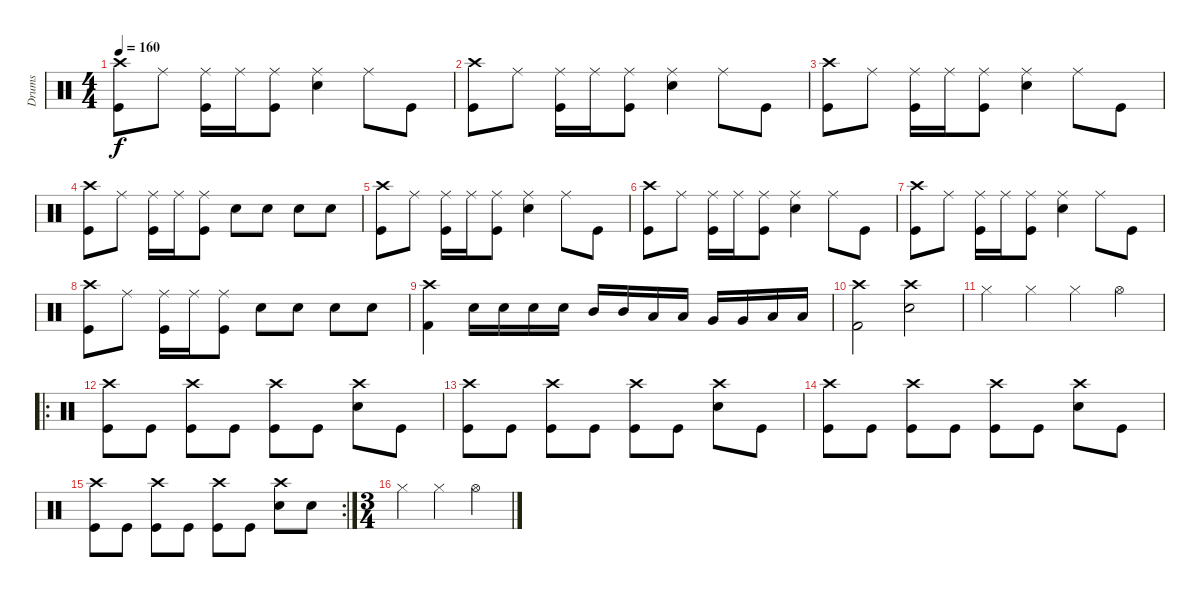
\track ("Drums" "Drums") {instrument percussion}
\staff {score}
\articulation defaults
\ts (4 4)
\tempo 160
\clef neutral
\ks c
("Crash high (hit)" "Kick (hit)").8{dy f} "Ride (middle)".8 ("Ride (middle)" "Kick (hit)").16 "Ride (middle)".16 ("Ride (middle)" "Kick (hit)").8 ("Ride (middle)" "Snare (hit) 2").4 "Ride (middle)".8 "Kick (hit)".8 |
("Crash high (hit)" "Kick (hit)").8 "Ride (middle)".8 ("Ride (middle)" "Kick (hit)").16 "Ride (middle)".16 ("Ride (middle)" "Kick (hit)").8 ("Ride (middle)" "Snare (hit) 2").4 "Ride (middle)".8 "Kick (hit)".8 |
("Crash high (hit)" "Kick (hit)").8 "Ride (middle)".8 ("Ride (middle)" "Kick (hit)").16 "Ride (middle)".16 ("Ride (middle)" "Kick (hit)").8 ("Ride (middle)" "Snare (hit) 2").4 "Ride (middle)".8 "Kick (hit)".8 |
("Crash high (hit)" "Kick (hit)").8 "Ride (middle)".8 ("Ride (middle)" "Kick (hit)").16 "Ride (middle)".16 ("Ride (middle)" "Kick (hit)").8 "Snare (hit) 2".8 "Snare (hit) 2".8 "Snare (hit) 2".8 "Snare (hit) 2".8 |
("Crash high (hit)" "Kick (hit)").8 "Ride (middle)".8 ("Ride (middle)" "Kick (hit)").16 "Ride (middle)".16 ("Ride (middle)" "Kick (hit)").8 ("Ride (middle)" "Snare (hit) 2").4 "Ride (middle)".8 "Kick (hit)".8 |
("Crash high (hit)" "Kick (hit)").8 "Ride (middle)".8 ("Ride (middle)" "Kick (hit)").16 "Ride (middle)".16 ("Ride (middle)" "Kick (hit)").8 ("Ride (middle)" "Snare (hit) 2").4 "Ride (middle)".8 "Kick (hit)".8 |
("Crash high (hit)" "Kick (hit)").8 "Ride (middle)".8 ("Ride (middle)" "Kick (hit)").16 "Ride (middle)".16 ("Ride (middle)" "Kick (hit)").8 ("Ride (middle)" "Snare (hit) 2").4 "Ride (middle)".8 "Kick (hit)".8 |
("Crash high (hit)" "Kick (hit)").8 "Ride (middle)".8 ("Ride (middle)" "Kick (hit)").16 "Ride (middle)".16 ("Ride (middle)" "Kick (hit)").8 "Snare (hit) 2".8 "Snare (hit) 2".8 "Snare (hit) 2".8 "Snare (hit) 2".8 |
("Crash high (hit)" "Kick (hit) 2").4 "Snare (hit) 2".16 "Snare (hit) 2".16 "Snare (hit) 2".16 "Snare (hit) 2".16 "Mid Tom (hit)".16 "Mid Tom (hit)".16 "Low Tom (hit)".16 "Low Tom (hit)".16 "Very Low Tom (hit)".16 "Very Low Tom (hit)".16 "Low Floor Tom (hit)".16 "Low Floor Tom (hit)".16 |
("Crash high (hit)" "Kick (hit) 2").2 ("Crash high (hit)" "Snare (hit) 2").2 |
"Hi-Hat (closed)".4 "Hi-Hat (closed)".4 "Hi-Hat (closed)".4 "Hi-Hat (open)".4 |
\ro
("Crash high (hit)" "Kick (hit)").8 "Kick (hit)".8 ("Crash high (hit)" "Kick (hit)").8 "Kick (hit)".8 ("Crash high (hit)" "Kick (hit)").8 "Kick (hit)".8 ("Crash high (hit)" "Snare (hit) 2").8 "Kick (hit)".8 |
("Crash high (hit)" "Kick (hit)").8 "Kick (hit)".8 ("Crash high (hit)" "Kick (hit)").8 "Kick (hit)".8 ("Crash high (hit)" "Kick (hit)").8 "Kick (hit)".8 ("Crash high (hit)" "Snare (hit) 2").8 "Kick (hit)".8 |
("Crash high (hit)" "Kick (hit)").8 "Kick (hit)".8 ("Crash high (hit)" "Kick (hit)").8 "Kick (hit)".8 ("Crash high (hit)" "Kick (hit)").8 "Kick (hit)".8 ("Crash high (hit)" "Snare (hit) 2").8 "Kick (hit)".8 |
\rc 2
("Crash high (hit)" "Kick (hit)").8 "Kick (hit)".8 ("Crash high (hit)" "Kick (hit)").8 "Kick (hit)".8 ("Crash high (hit)" "Kick (hit)").8 "Kick (hit)".8 ("Crash high (hit)" "Snare (hit) 2").8 "Snare (hit) 2".8 |
\ts (3 4)
"Hi-Hat (closed)".4 "Hi-Hat (closed)".4 "Hi-Hat (open)".4
